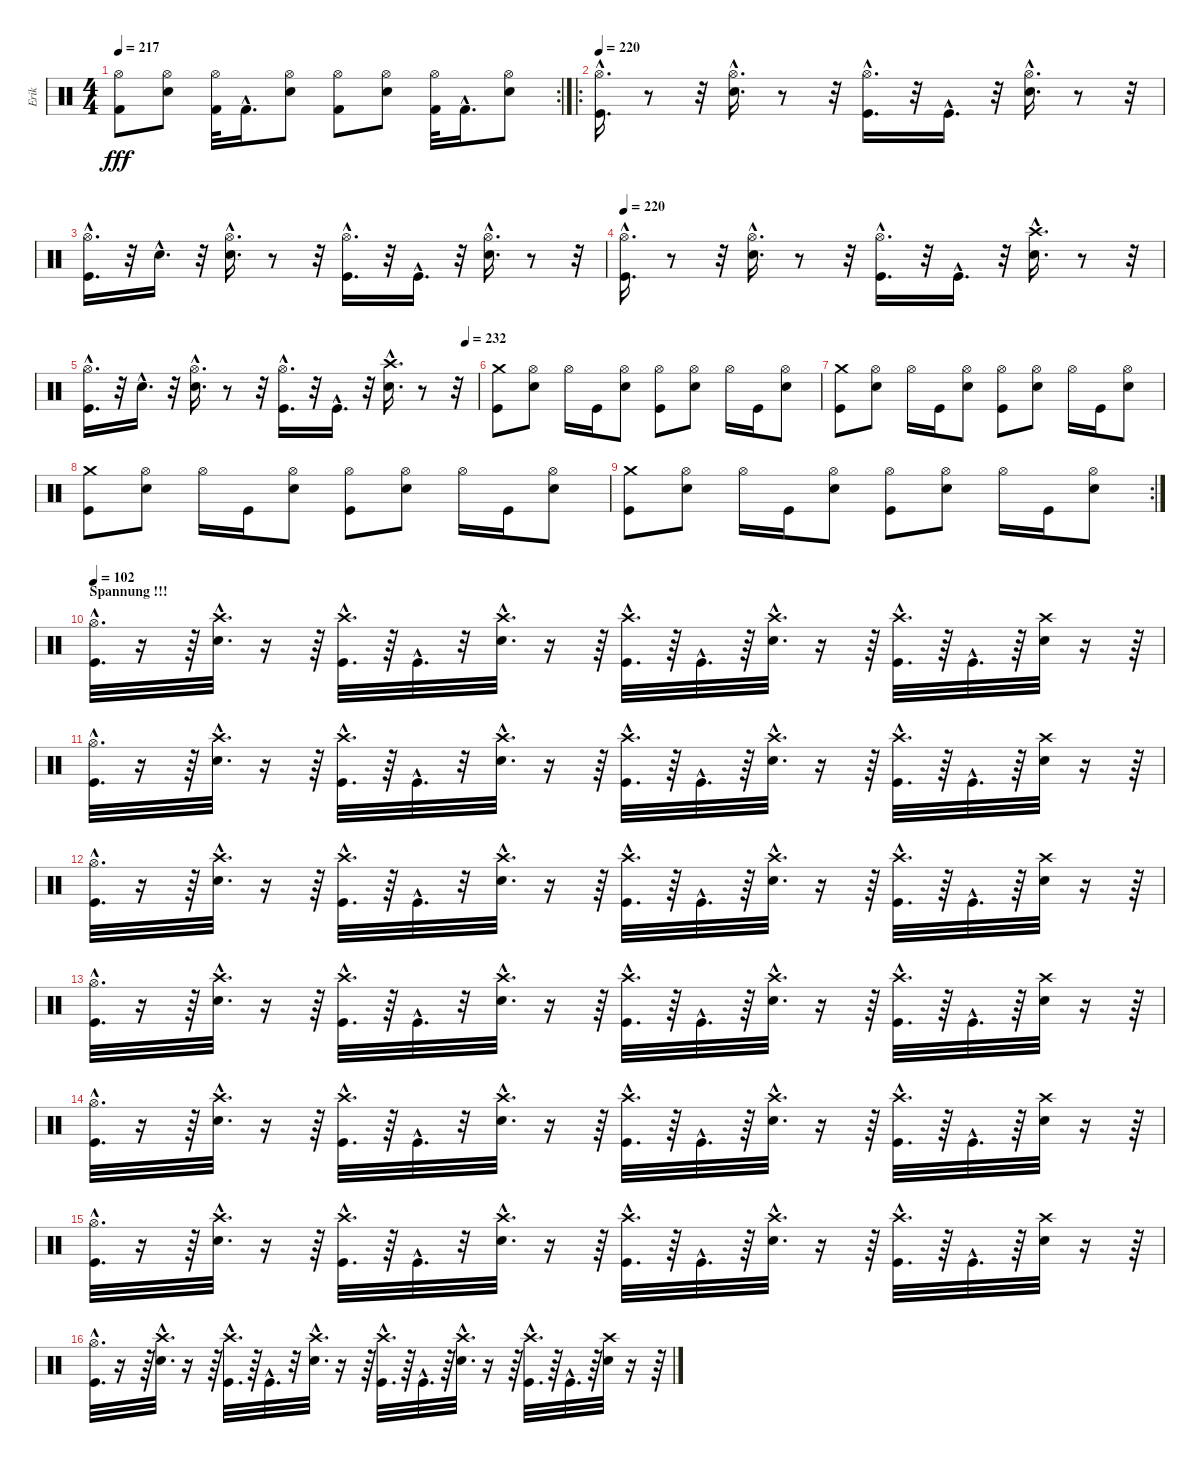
\track ("Erik" "Erik") {instrument percussion}
\staff {score}
\articulation defaults
\rc 2
\ts (4 4)
\tempo 217
\clef neutral
\ks c
("Kick (hit) 2" "Hi-Hat (open)").8{dy fff} ("Hi-Hat (open)" "Electric Snare (hit)").8 ("Kick (hit) 2" "Hi-Hat (open)").32 "Kick (hit) 2"{hac}.16{d} ("Hi-Hat (open)" "Electric Snare (hit)").8 ("Kick (hit) 2" "Hi-Hat (open)").8 ("Hi-Hat (open)" "Electric Snare (hit)").8 ("Hi-Hat (open)" "Kick (hit) 2").32 "Kick (hit) 2"{hac}.16{d} ("Hi-Hat (open)" "Electric Snare (hit)").8 |
\ro
\tempo 220
("Kick (hit)"{hac} "Hi-Hat (open)"{hac}).16{d} r.8 r.32 ("Hi-Hat (open)"{hac} "Electric Snare (hit)"{hac}).16{d} r.8 r.32 ("Hi-Hat (open)"{hac} "Kick (hit)"{hac}).16{d} r.32 "Kick (hit)"{hac}.16{d} r.32 ("Hi-Hat (open)"{hac} "Electric Snare (hit)"{hac}).16{d} r.8 r.32 |
("Kick (hit)"{hac} "Hi-Hat (open)"{hac}).16{d} r.32 "Metronome (bell)"{hac}.16{d} r.32 ("Hi-Hat (open)"{hac} "Electric Snare (hit)"{hac}).16{d} r.8 r.32 ("Kick (hit)"{hac} "Hi-Hat (open)"{hac}).16{d} r.32 "Kick (hit)"{hac}.16{d} r.32 ("Hi-Hat (open)"{hac} "Electric Snare (hit)"{hac}).16{d} r.8 r.32 |
\tempo 220
("Kick (hit)"{hac} "Hi-Hat (open)"{hac}).16{d} r.8 r.32 ("Hi-Hat (open)"{hac} "Electric Snare (hit)"{hac}).16{d} r.8 r.32 ("Hi-Hat (open)"{hac} "Kick (hit)"{hac}).16{d} r.32 "Kick (hit)"{hac}.16{d} r.32 ("Crash high (hit)"{hac} "Electric Snare (hit)"{hac}).16{d} r.8 r.32 |
\tempo (232 0.96875)
("Kick (hit)"{hac} "Hi-Hat (open)"{hac}).16{d} r.32 "Metronome (bell)"{hac}.16{d} r.32 ("Hi-Hat (open)"{hac} "Electric Snare (hit)"{hac}).16{d} r.8 r.32 ("Kick (hit)"{hac} "Hi-Hat (open)"{hac}).16{d} r.32 "Kick (hit)"{hac}.16{d} r.32 ("Crash high (hit)"{hac} "Electric Snare (hit)"{hac}).16{d} r.8 r.32 |
("Crash medium (hit)" "Kick (hit)").8 ("Electric Snare (hit)" "Hi-Hat (open)").8 "Hi-Hat (open)".16 "Kick (hit)".16 ("Hi-Hat (open)" "Electric Snare (hit)").8 ("Kick (hit)" "Hi-Hat (open)").8 ("Electric Snare (hit)" "Hi-Hat (open)").8 "Hi-Hat (open)".16 "Kick (hit)".16 ("Electric Snare (hit)" "Hi-Hat (open)").8 |
("Crash medium (hit)" "Kick (hit)").8 ("Electric Snare (hit)" "Hi-Hat (open)").8 "Hi-Hat (open)".16 "Kick (hit)".16 ("Hi-Hat (open)" "Electric Snare (hit)").8 ("Kick (hit)" "Hi-Hat (open)").8 ("Electric Snare (hit)" "Hi-Hat (open)").8 "Hi-Hat (open)".16 "Kick (hit)".16 ("Electric Snare (hit)" "Hi-Hat (open)").8 |
("Crash medium (hit)" "Kick (hit)").8 ("Electric Snare (hit)" "Hi-Hat (open)").8 "Hi-Hat (open)".16 "Kick (hit)".16 ("Hi-Hat (open)" "Electric Snare (hit)").8 ("Kick (hit)" "Hi-Hat (open)").8 ("Electric Snare (hit)" "Hi-Hat (open)").8 "Hi-Hat (open)".16 "Kick (hit)".16 ("Electric Snare (hit)" "Hi-Hat (open)").8 |
\rc 2
("Crash medium (hit)" "Kick (hit)").8 ("Electric Snare (hit)" "Hi-Hat (open)").8 "Hi-Hat (open)".16 "Kick (hit)".16 ("Hi-Hat (open)" "Electric Snare (hit)").8 ("Kick (hit)" "Hi-Hat (open)").8 ("Electric Snare (hit)" "Hi-Hat (open)").8 "Hi-Hat (open)".16 "Kick (hit)".16 ("Electric Snare (hit)" "Hi-Hat (open)").8 |
\section ("" "Spannung !!!")
\tempo 102
("Hi-Hat (open)"{hac} "Kick (hit)"{hac}).32{d} r.16 r.64 ("Crash high (hit)"{hac} "Electric Snare (hit)"{hac}).32{d} r.16 r.64 ("Kick (hit)"{hac} "Crash high (hit)"{hac}).32{d} r.64 "Kick (hit)"{hac}.32{d} r.32 ("Crash high (hit)"{hac} "Electric Snare (hit)"{hac}).32{d} r.16 r.64 ("Crash high (hit)"{hac} "Kick (hit)"{hac}).32{d} r.64 "Kick (hit)"{hac}.32{d} r.64 ("Crash high (hit)"{hac} "Electric Snare (hit)"{hac}).32{d} r.16 r.64 ("Kick (hit)"{hac} "Crash high (hit)"{hac}).32{d} r.64 "Kick (hit)"{hac}.32{d} r.64 ("Electric Snare (hit)" "Crash high (hit)").32 r.16 r.64 |
("Hi-Hat (open)"{hac} "Kick (hit)"{hac}).32{d} r.16 r.64 ("Crash high (hit)"{hac} "Electric Snare (hit)"{hac}).32{d} r.16 r.64 ("Kick (hit)"{hac} "Crash high (hit)"{hac}).32{d} r.64 "Kick (hit)"{hac}.32{d} r.32 ("Crash high (hit)"{hac} "Electric Snare (hit)"{hac}).32{d} r.16 r.64 ("Crash high (hit)"{hac} "Kick (hit)"{hac}).32{d} r.64 "Kick (hit)"{hac}.32{d} r.64 ("Crash high (hit)"{hac} "Electric Snare (hit)"{hac}).32{d} r.16 r.64 ("Kick (hit)"{hac} "Crash high (hit)"{hac}).32{d} r.64 "Kick (hit)"{hac}.32{d} r.64 ("Electric Snare (hit)" "Crash high (hit)").32 r.16 r.64 |
("Hi-Hat (open)"{hac} "Kick (hit)"{hac}).32{d} r.16 r.64 ("Crash high (hit)"{hac} "Electric Snare (hit)"{hac}).32{d} r.16 r.64 ("Kick (hit)"{hac} "Crash high (hit)"{hac}).32{d} r.64 "Kick (hit)"{hac}.32{d} r.32 ("Crash high (hit)"{hac} "Electric Snare (hit)"{hac}).32{d} r.16 r.64 ("Crash high (hit)"{hac} "Kick (hit)"{hac}).32{d} r.64 "Kick (hit)"{hac}.32{d} r.64 ("Crash high (hit)"{hac} "Electric Snare (hit)"{hac}).32{d} r.16 r.64 ("Kick (hit)"{hac} "Crash high (hit)"{hac}).32{d} r.64 "Kick (hit)"{hac}.32{d} r.64 ("Electric Snare (hit)" "Crash high (hit)").32 r.16 r.64 |
("Hi-Hat (open)"{hac} "Kick (hit)"{hac}).32{d} r.16 r.64 ("Crash high (hit)"{hac} "Electric Snare (hit)"{hac}).32{d} r.16 r.64 ("Kick (hit)"{hac} "Crash high (hit)"{hac}).32{d} r.64 "Kick (hit)"{hac}.32{d} r.32 ("Crash high (hit)"{hac} "Electric Snare (hit)"{hac}).32{d} r.16 r.64 ("Crash high (hit)"{hac} "Kick (hit)"{hac}).32{d} r.64 "Kick (hit)"{hac}.32{d} r.64 ("Crash high (hit)"{hac} "Electric Snare (hit)"{hac}).32{d} r.16 r.64 ("Kick (hit)"{hac} "Crash high (hit)"{hac}).32{d} r.64 "Kick (hit)"{hac}.32{d} r.64 ("Electric Snare (hit)" "Crash high (hit)").32 r.16 r.64 |
("Hi-Hat (open)"{hac} "Kick (hit)"{hac}).32{d} r.16 r.64 ("Crash high (hit)"{hac} "Electric Snare (hit)"{hac}).32{d} r.16 r.64 ("Kick (hit)"{hac} "Crash high (hit)"{hac}).32{d} r.64 "Kick (hit)"{hac}.32{d} r.32 ("Crash high (hit)"{hac} "Electric Snare (hit)"{hac}).32{d} r.16 r.64 ("Crash high (hit)"{hac} "Kick (hit)"{hac}).32{d} r.64 "Kick (hit)"{hac}.32{d} r.64 ("Crash high (hit)"{hac} "Electric Snare (hit)"{hac}).32{d} r.16 r.64 ("Kick (hit)"{hac} "Crash high (hit)"{hac}).32{d} r.64 "Kick (hit)"{hac}.32{d} r.64 ("Electric Snare (hit)" "Crash high (hit)").32 r.16 r.64 |
("Hi-Hat (open)"{hac} "Kick (hit)"{hac}).32{d} r.16 r.64 ("Crash high (hit)"{hac} "Electric Snare (hit)"{hac}).32{d} r.16 r.64 ("Kick (hit)"{hac} "Crash high (hit)"{hac}).32{d} r.64 "Kick (hit)"{hac}.32{d} r.32 ("Crash high (hit)"{hac} "Electric Snare (hit)"{hac}).32{d} r.16 r.64 ("Crash high (hit)"{hac} "Kick (hit)"{hac}).32{d} r.64 "Kick (hit)"{hac}.32{d} r.64 ("Crash high (hit)"{hac} "Electric Snare (hit)"{hac}).32{d} r.16 r.64 ("Kick (hit)"{hac} "Crash high (hit)"{hac}).32{d} r.64 "Kick (hit)"{hac}.32{d} r.64 ("Electric Snare (hit)" "Crash high (hit)").32 r.16 r.64 |
("Hi-Hat (open)"{hac} "Kick (hit)"{hac}).32{d} r.16 r.64 ("Crash high (hit)"{hac} "Electric Snare (hit)"{hac}).32{d} r.16 r.64 ("Kick (hit)"{hac} "Crash high (hit)"{hac}).32{d} r.64 "Kick (hit)"{hac}.32{d} r.32 ("Crash high (hit)"{hac} "Electric Snare (hit)"{hac}).32{d} r.16 r.64 ("Crash high (hit)"{hac} "Kick (hit)"{hac}).32{d} r.64 "Kick (hit)"{hac}.32{d} r.64 ("Crash high (hit)"{hac} "Electric Snare (hit)"{hac}).32{d} r.16 r.64 ("Kick (hit)"{hac} "Crash high (hit)"{hac}).32{d} r.64 "Kick (hit)"{hac}.32{d} r.64 ("Electric Snare (hit)" "Crash high (hit)").32 r.16 r.64
